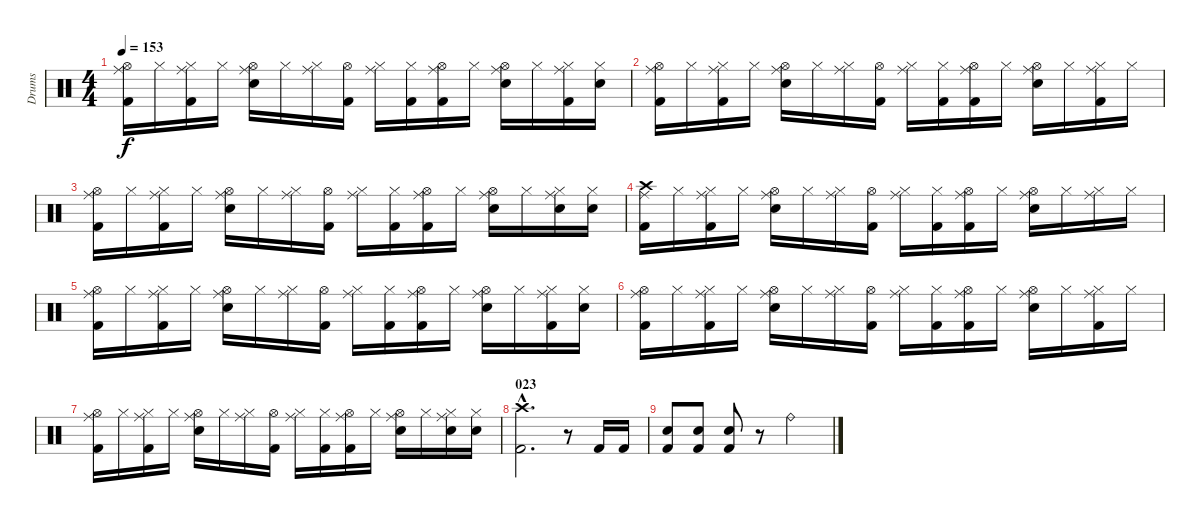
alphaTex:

\track ("Drums" "Drums") {instrument percussion}
\staff {score}
\articulation defaults
\ts (4 4)
\tempo 153
\clef neutral
\ks c
("Hi-Hat (open)" "Kick (hit) 2" "Ride (middle)").16{dy f} "Hi-Hat (closed)".16 ("Hi-Hat (closed)" "Kick (hit) 2" "Ride (middle)").16 "Hi-Hat (closed)".16 ("Hi-Hat (open)" "Electric Snare (hit)" "Ride (middle)").16 "Hi-Hat (closed)".16 ("Hi-Hat (closed)" "Ride (middle)").16 ("Hi-Hat (open)" "Kick (hit) 2").16 ("Hi-Hat (closed)" "Ride (middle)").16 ("Hi-Hat (closed)" "Kick (hit) 2").16 ("Hi-Hat (open)" "Kick (hit) 2" "Ride (middle)").16 "Hi-Hat (closed)".16 ("Hi-Hat (open)" "Electric Snare (hit)" "Ride (middle)").16 "Hi-Hat (closed)".16 ("Hi-Hat (closed)" "Kick (hit) 2" "Ride (middle)").16 ("Hi-Hat (closed)" "Electric Snare (hit)").16 |
("Hi-Hat (open)" "Kick (hit) 2" "Ride (middle)").16 "Hi-Hat (closed)".16 ("Hi-Hat (closed)" "Kick (hit) 2" "Ride (middle)").16 "Hi-Hat (closed)".16 ("Hi-Hat (open)" "Electric Snare (hit)" "Ride (middle)").16 "Hi-Hat (closed)".16 ("Hi-Hat (closed)" "Ride (middle)").16 ("Hi-Hat (open)" "Kick (hit) 2").16 ("Hi-Hat (closed)" "Ride (middle)").16 ("Hi-Hat (closed)" "Kick (hit) 2").16 ("Hi-Hat (open)" "Kick (hit) 2" "Ride (middle)").16 "Hi-Hat (closed)".16 ("Hi-Hat (open)" "Electric Snare (hit)" "Ride (middle)").16 "Hi-Hat (closed)".16 ("Hi-Hat (closed)" "Kick (hit) 2" "Ride (middle)").16 "Hi-Hat (closed)".16 |
("Hi-Hat (open)" "Kick (hit) 2" "Ride (middle)").16 "Hi-Hat (closed)".16 ("Hi-Hat (closed)" "Kick (hit) 2" "Ride (middle)").16 "Hi-Hat (closed)".16 ("Hi-Hat (open)" "Electric Snare (hit)" "Ride (middle)").16 "Hi-Hat (closed)".16 ("Hi-Hat (closed)" "Ride (middle)").16 ("Hi-Hat (open)" "Kick (hit) 2").16 ("Hi-Hat (closed)" "Ride (middle)").16 ("Hi-Hat (closed)" "Kick (hit) 2").16 ("Hi-Hat (open)" "Kick (hit) 2" "Ride (middle)").16 "Hi-Hat (closed)".16 ("Hi-Hat (open)" "Electric Snare (hit)" "Ride (middle)").16 "Hi-Hat (closed)".16 ("Hi-Hat (closed)" "Electric Snare (hit)" "Ride (middle)").16 ("Hi-Hat (closed)" "Electric Snare (hit)").16 |
("Crash high (hit)" "Kick (hit) 2" "Ride (middle)").16 "Hi-Hat (closed)".16 ("Hi-Hat (closed)" "Kick (hit) 2" "Ride (middle)").16 "Hi-Hat (closed)".16 ("Hi-Hat (open)" "Electric Snare (hit)" "Ride (middle)").16 "Hi-Hat (closed)".16 ("Hi-Hat (closed)" "Ride (middle)").16 ("Hi-Hat (open)" "Kick (hit) 2").16 ("Hi-Hat (closed)" "Ride (middle)").16 ("Hi-Hat (closed)" "Kick (hit) 2").16 ("Hi-Hat (open)" "Kick (hit) 2" "Ride (middle)").16 "Hi-Hat (closed)".16 ("Hi-Hat (open)" "Electric Snare (hit)" "Ride (middle)").16 "Hi-Hat (closed)".16 ("Hi-Hat (closed)" "Ride (middle)").16 "Hi-Hat (closed)".16 |
("Hi-Hat (open)" "Kick (hit) 2" "Ride (middle)").16 "Hi-Hat (closed)".16 ("Hi-Hat (closed)" "Kick (hit) 2" "Ride (middle)").16 "Hi-Hat (closed)".16 ("Hi-Hat (open)" "Electric Snare (hit)" "Ride (middle)").16 "Hi-Hat (closed)".16 ("Hi-Hat (closed)" "Ride (middle)").16 ("Hi-Hat (open)" "Kick (hit) 2").16 ("Hi-Hat (closed)" "Ride (middle)").16 ("Hi-Hat (closed)" "Kick (hit) 2").16 ("Hi-Hat (open)" "Kick (hit) 2" "Ride (middle)").16 "Hi-Hat (closed)".16 ("Hi-Hat (open)" "Electric Snare (hit)" "Ride (middle)").16 "Hi-Hat (closed)".16 ("Hi-Hat (closed)" "Kick (hit) 2" "Ride (middle)").16 ("Hi-Hat (closed)" "Electric Snare (hit)").16 |
("Hi-Hat (open)" "Kick (hit) 2" "Ride (middle)").16 "Hi-Hat (closed)".16 ("Hi-Hat (closed)" "Kick (hit) 2" "Ride (middle)").16 "Hi-Hat (closed)".16 ("Hi-Hat (open)" "Electric Snare (hit)" "Ride (middle)").16 "Hi-Hat (closed)".16 ("Hi-Hat (closed)" "Ride (middle)").16 ("Hi-Hat (open)" "Kick (hit) 2").16 ("Hi-Hat (closed)" "Ride (middle)").16 ("Hi-Hat (closed)" "Kick (hit) 2").16 ("Hi-Hat (open)" "Kick (hit) 2" "Ride (middle)").16 "Hi-Hat (closed)".16 ("Hi-Hat (open)" "Electric Snare (hit)" "Ride (middle)").16 "Hi-Hat (closed)".16 ("Hi-Hat (closed)" "Kick (hit) 2" "Ride (middle)").16 "Hi-Hat (closed)".16 |
("Hi-Hat (open)" "Kick (hit) 2" "Ride (middle)").16 "Hi-Hat (closed)".16 ("Hi-Hat (closed)" "Kick (hit) 2" "Ride (middle)").16 "Hi-Hat (closed)".16 ("Hi-Hat (open)" "Electric Snare (hit)" "Ride (middle)").16 "Hi-Hat (closed)".16 ("Hi-Hat (closed)" "Ride (middle)").16 ("Hi-Hat (open)" "Kick (hit) 2").16 ("Hi-Hat (closed)" "Ride (middle)").16 ("Hi-Hat (closed)" "Kick (hit) 2").16 ("Hi-Hat (open)" "Kick (hit) 2" "Ride (middle)").16 "Hi-Hat (closed)".16 ("Hi-Hat (open)" "Electric Snare (hit)" "Ride (middle)").16 "Hi-Hat (closed)".16 ("Hi-Hat (closed)" "Electric Snare (hit)" "Ride (middle)").16 ("Hi-Hat (closed)" "Electric Snare (hit)").16 |
\section ("" "023")
("Crash high (hit)"{hac} "Kick (hit) 2"{hac}).2{d} r.8 "Kick (hit) 2".16 "Kick (hit) 2".16 |
("Electric Snare (hit)" "Kick (hit) 2").8 ("Electric Snare (hit)" "Kick (hit) 2").8 ("Electric Snare (hit)" "Kick (hit) 2").8 r.8 "Ride (bell)".2
